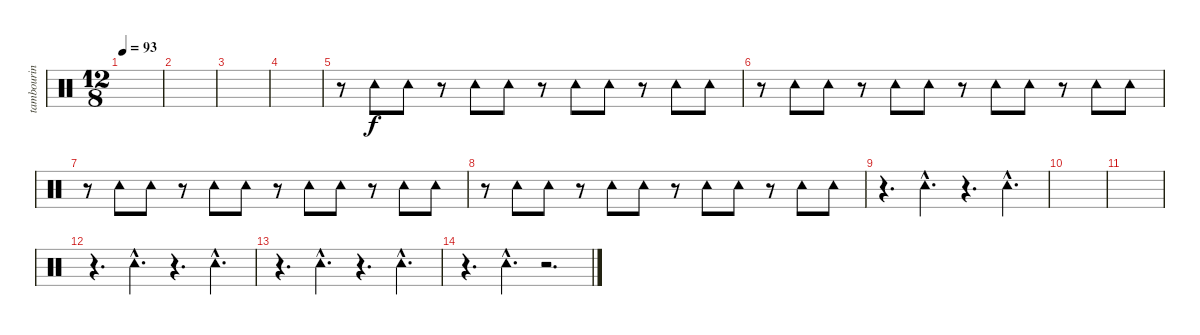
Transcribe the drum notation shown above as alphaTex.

\track ("tambourin" "tambourin") {instrument percussion}
\staff {score}
\articulation defaults
\ts (12 8)
\tempo 93
\clef neutral
\ks c
|
|
|
|
r.8 "Tambourine (hit)".8{volume 16} "Tambourine (hit)".8{volume 16} r.8 "Tambourine (hit)".8{volume 16} "Tambourine (hit)".8{volume 16} r.8 "Tambourine (hit)".8{volume 16} "Tambourine (hit)".8{volume 16} r.8 "Tambourine (hit)".8{volume 16} "Tambourine (hit)".8{volume 16} |
r.8 "Tambourine (hit)".8{volume 16} "Tambourine (hit)".8{volume 16} r.8 "Tambourine (hit)".8{volume 16} "Tambourine (hit)".8{volume 16} r.8 "Tambourine (hit)".8{volume 16} "Tambourine (hit)".8{volume 16} r.8 "Tambourine (hit)".8{volume 16} "Tambourine (hit)".8{volume 16} |
r.8 "Tambourine (hit)".8{volume 16} "Tambourine (hit)".8{volume 16} r.8 "Tambourine (hit)".8{volume 16} "Tambourine (hit)".8{volume 16} r.8 "Tambourine (hit)".8{volume 16} "Tambourine (hit)".8{volume 16} r.8 "Tambourine (hit)".8{volume 16} "Tambourine (hit)".8{volume 16} |
r.8 "Tambourine (hit)".8{volume 16} "Tambourine (hit)".8{volume 16} r.8 "Tambourine (hit)".8{volume 16} "Tambourine (hit)".8{volume 16} r.8 "Tambourine (hit)".8{volume 16} "Tambourine (hit)".8{volume 16} r.8 "Tambourine (hit)".8{volume 16} "Tambourine (hit)".8{volume 16} |
r.4{d} "Tambourine (hit)"{hac}.4{d volume 16} r.4{d} "Tambourine (hit)"{hac}.4{d} |
|
|
r.4{d} "Tambourine (hit)"{hac}.4{d} r.4{d} "Tambourine (hit)"{hac}.4{d} |
r.4{d} "Tambourine (hit)"{hac}.4{d} r.4{d} "Tambourine (hit)"{hac}.4{d} |
r.4{d} "Tambourine (hit)"{hac}.4{d} r.2{d}
